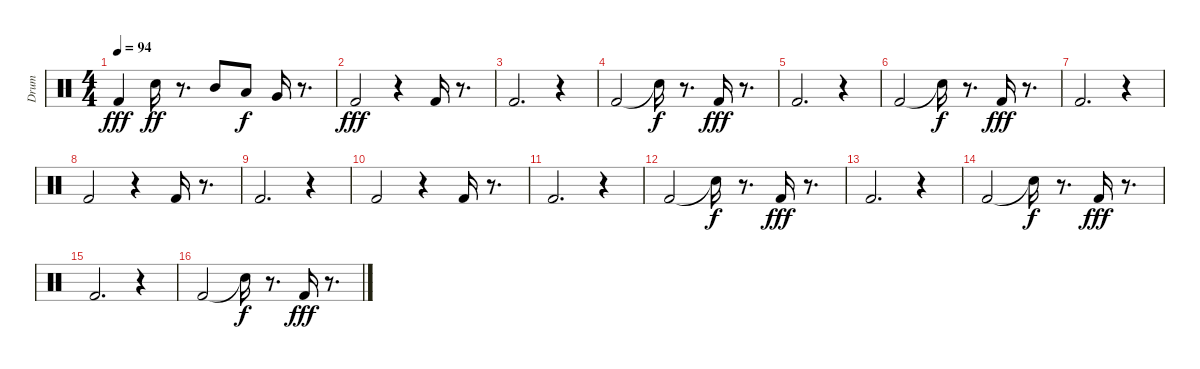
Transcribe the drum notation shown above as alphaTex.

\track ("Drum                    " "Drum      ") {instrument percussion}
\staff {score}
\articulation defaults
\ts (4 4)
\tempo 94
\clef neutral
\ks c "Kick (hit) 2".4{dy fff} "Snare (hit) 2".16{dy ff}
r.8{d} "Mid Tom (hit)".8 "Low Tom (hit)".8{dy f} "Very Low Tom (hit)".16 r.8{d} |
"Kick (hit) 2".2{dy fff} r.4 "Kick (hit) 2".16 r.8{d} |
"Kick (hit) 2".2{d} r.4 |
"Kick (hit) 2".2 "Snare (hit)"{t}.16{dy f} r.8{d} "Kick (hit) 2".16{dy fff} r.8{d} |
"Kick (hit) 2".2{d} r.4 |
"Kick (hit) 2".2 "Snare (hit)"{t}.16{dy f} r.8{d} "Kick (hit) 2".16{dy fff} r.8{d} |
"Kick (hit) 2".2{d} r.4 |
"Kick (hit) 2".2 r.4 "Kick (hit) 2".16 r.8{d} |
"Kick (hit) 2".2{d} r.4 |
"Kick (hit) 2".2 r.4 "Kick (hit) 2".16 r.8{d} |
"Kick (hit) 2".2{d} r.4 |
"Kick (hit) 2".2 "Snare (hit)"{t}.16{dy f} r.8{d} "Kick (hit) 2".16{dy fff} r.8{d} |
"Kick (hit) 2".2{d} r.4 |
"Kick (hit) 2".2 "Snare (hit)"{t}.16{dy f} r.8{d} "Kick (hit) 2".16{dy fff} r.8{d} |
"Kick (hit) 2".2{d} r.4 |
"Kick (hit) 2".2 "Snare (hit)"{t}.16{dy f} r.8{d} "Kick (hit) 2".16{dy fff} r.8{d}
